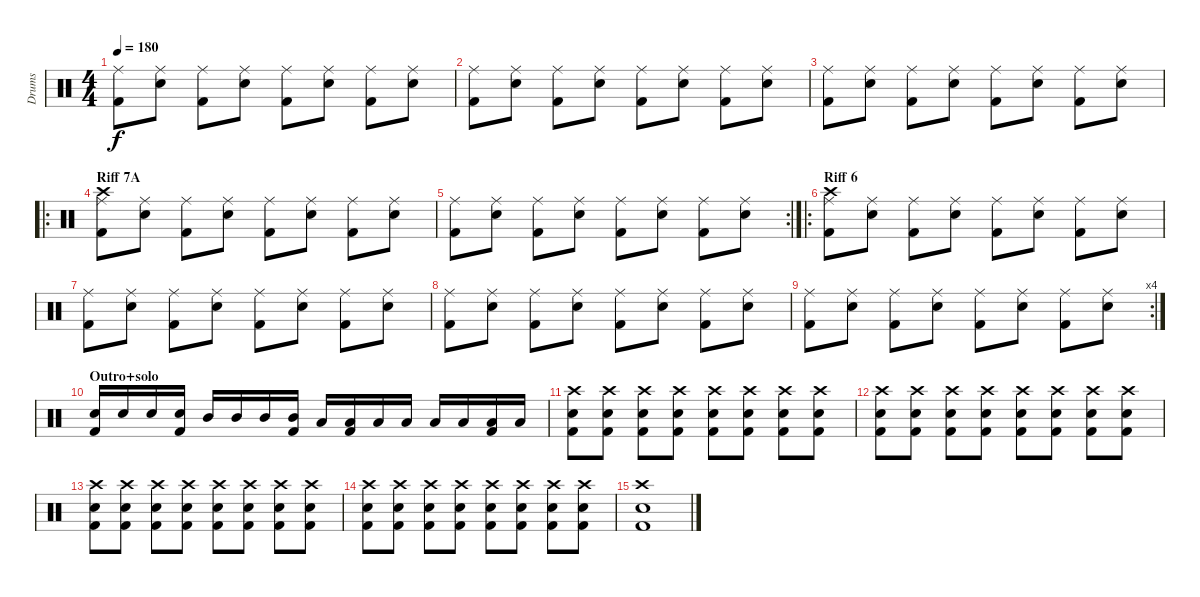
\track ("Drums" "Drums") {instrument percussion}
\staff {score}
\articulation defaults
\ts (4 4)
\tempo 180
\clef neutral
\ks c
("Ride (middle)" "Kick (hit) 2").8{dy f} ("Ride (middle)" "Snare (hit) 2").8 ("Ride (middle)" "Kick (hit) 2").8 ("Ride (middle)" "Snare (hit) 2").8 ("Ride (middle)" "Kick (hit) 2").8 ("Ride (middle)" "Snare (hit) 2").8 ("Ride (middle)" "Kick (hit) 2").8 ("Ride (middle)" "Snare (hit) 2").8 |
("Ride (middle)" "Kick (hit) 2").8 ("Ride (middle)" "Snare (hit) 2").8 ("Ride (middle)" "Kick (hit) 2").8 ("Ride (middle)" "Snare (hit) 2").8 ("Ride (middle)" "Kick (hit) 2").8 ("Ride (middle)" "Snare (hit) 2").8 ("Ride (middle)" "Kick (hit) 2").8 ("Ride (middle)" "Snare (hit) 2").8 |
("Ride (middle)" "Kick (hit) 2").8 ("Ride (middle)" "Snare (hit) 2").8 ("Ride (middle)" "Kick (hit) 2").8 ("Ride (middle)" "Snare (hit) 2").8 ("Ride (middle)" "Kick (hit) 2").8 ("Ride (middle)" "Snare (hit) 2").8 ("Ride (middle)" "Kick (hit) 2").8 ("Ride (middle)" "Snare (hit) 2").8 |
\ro
\section ("" "Riff 7A")
("Ride (middle)" "Crash high (hit)" "Kick (hit) 2").8 ("Ride (middle)" "Snare (hit) 2").8 ("Ride (middle)" "Kick (hit) 2").8 ("Ride (middle)" "Snare (hit) 2").8 ("Ride (middle)" "Kick (hit) 2").8 ("Ride (middle)" "Snare (hit) 2").8 ("Ride (middle)" "Kick (hit) 2").8 ("Ride (middle)" "Snare (hit) 2").8 |
\rc 2
("Ride (middle)" "Kick (hit) 2").8 ("Ride (middle)" "Snare (hit) 2").8 ("Ride (middle)" "Kick (hit) 2").8 ("Ride (middle)" "Snare (hit) 2").8 ("Ride (middle)" "Kick (hit) 2").8 ("Ride (middle)" "Snare (hit) 2").8 ("Ride (middle)" "Kick (hit) 2").8 ("Ride (middle)" "Snare (hit) 2").8 |
\ro
\section ("" "Riff 6")
("Ride (middle)" "Crash high (hit)" "Kick (hit) 2").8 ("Ride (middle)" "Snare (hit) 2").8 ("Ride (middle)" "Kick (hit) 2").8 ("Ride (middle)" "Snare (hit) 2").8 ("Ride (middle)" "Kick (hit) 2").8 ("Ride (middle)" "Snare (hit) 2").8 ("Ride (middle)" "Kick (hit) 2").8 ("Ride (middle)" "Snare (hit) 2").8 |
("Ride (middle)" "Kick (hit) 2").8 ("Ride (middle)" "Snare (hit) 2").8 ("Ride (middle)" "Kick (hit) 2").8 ("Ride (middle)" "Snare (hit) 2").8 ("Ride (middle)" "Kick (hit) 2").8 ("Ride (middle)" "Snare (hit) 2").8 ("Ride (middle)" "Kick (hit) 2").8 ("Ride (middle)" "Snare (hit) 2").8 |
("Ride (middle)" "Kick (hit) 2").8 ("Ride (middle)" "Snare (hit) 2").8 ("Ride (middle)" "Kick (hit) 2").8 ("Ride (middle)" "Snare (hit) 2").8 ("Ride (middle)" "Kick (hit) 2").8 ("Ride (middle)" "Snare (hit) 2").8 ("Ride (middle)" "Kick (hit) 2").8 ("Ride (middle)" "Snare (hit) 2").8 |
\rc 4
("Ride (middle)" "Kick (hit) 2").8 ("Ride (middle)" "Snare (hit) 2").8 ("Ride (middle)" "Kick (hit) 2").8 ("Ride (middle)" "Snare (hit) 2").8 ("Ride (middle)" "Kick (hit) 2").8 ("Ride (middle)" "Snare (hit) 2").8 ("Ride (middle)" "Kick (hit) 2").8 ("Ride (middle)" "Snare (hit) 2").8 |
\section ("" "Outro+solo")
("Kick (hit) 2" "Snare (hit) 2").16 "Snare (hit) 2".16 "Snare (hit) 2".16 ("Kick (hit) 2" "Snare (hit) 2").16 "Mid Tom (hit)".16 "Mid Tom (hit)".16 "Mid Tom (hit)".16 ("Kick (hit) 2" "Mid Tom (hit)").16 "Low Tom (hit)".16 ("Kick (hit) 2" "Low Tom (hit)").16 "Low Tom (hit)".16 "Low Tom (hit)".16 "Low Floor Tom (hit)".16 "Low Floor Tom (hit)".16 ("Kick (hit) 2" "Low Floor Tom (hit)").16 "Low Floor Tom (hit)".16 |
("Crash high (hit)" "Snare (hit) 2" "Kick (hit) 2").8 ("Crash high (hit)" "Snare (hit) 2" "Kick (hit) 2").8 ("Crash high (hit)" "Snare (hit) 2" "Kick (hit) 2").8 ("Crash high (hit)" "Snare (hit) 2" "Kick (hit) 2").8 ("Crash high (hit)" "Snare (hit) 2" "Kick (hit) 2").8 ("Crash high (hit)" "Snare (hit) 2" "Kick (hit) 2").8 ("Crash high (hit)" "Snare (hit) 2" "Kick (hit) 2").8 ("Crash high (hit)" "Snare (hit) 2" "Kick (hit) 2").8 |
("Crash high (hit)" "Snare (hit) 2" "Kick (hit) 2").8 ("Crash high (hit)" "Snare (hit) 2" "Kick (hit) 2").8 ("Crash high (hit)" "Snare (hit) 2" "Kick (hit) 2").8 ("Crash high (hit)" "Snare (hit) 2" "Kick (hit) 2").8 ("Crash high (hit)" "Snare (hit) 2" "Kick (hit) 2").8 ("Crash high (hit)" "Snare (hit) 2" "Kick (hit) 2").8 ("Crash high (hit)" "Snare (hit) 2" "Kick (hit) 2").8 ("Crash high (hit)" "Snare (hit) 2" "Kick (hit) 2").8 |
("Crash high (hit)" "Snare (hit) 2" "Kick (hit) 2").8 ("Crash high (hit)" "Snare (hit) 2" "Kick (hit) 2").8 ("Crash high (hit)" "Snare (hit) 2" "Kick (hit) 2").8 ("Crash high (hit)" "Snare (hit) 2" "Kick (hit) 2").8 ("Crash high (hit)" "Snare (hit) 2" "Kick (hit) 2").8 ("Crash high (hit)" "Snare (hit) 2" "Kick (hit) 2").8 ("Crash high (hit)" "Snare (hit) 2" "Kick (hit) 2").8 ("Crash high (hit)" "Snare (hit) 2" "Kick (hit) 2").8 |
("Crash high (hit)" "Snare (hit) 2" "Kick (hit) 2").8 ("Crash high (hit)" "Snare (hit) 2" "Kick (hit) 2").8 ("Crash high (hit)" "Snare (hit) 2" "Kick (hit) 2").8 ("Crash high (hit)" "Snare (hit) 2" "Kick (hit) 2").8 ("Crash high (hit)" "Snare (hit) 2" "Kick (hit) 2").8 ("Crash high (hit)" "Snare (hit) 2" "Kick (hit) 2").8 ("Crash high (hit)" "Snare (hit) 2" "Kick (hit) 2").8 ("Crash high (hit)" "Snare (hit) 2" "Kick (hit) 2").8 |
("Crash high (hit)" "Snare (hit) 2" "Kick (hit) 2").1
